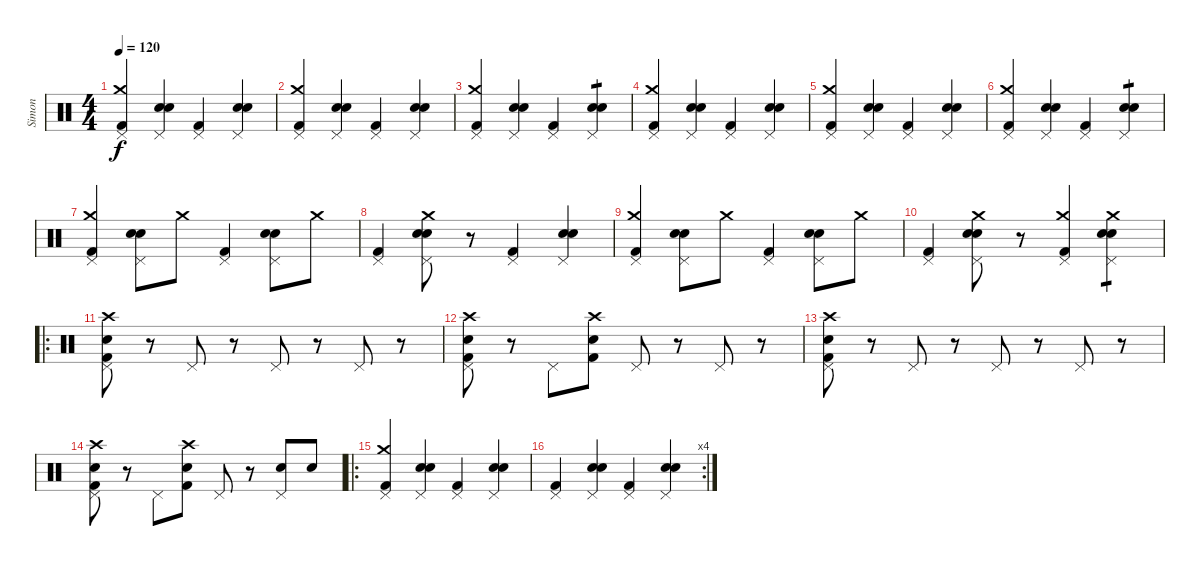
\track ("Simon" "Simon") {instrument percussion}
\staff {score}
\articulation defaults
\ts (4 4)
\tempo 120
\clef neutral
\ks c
("Kick (hit) 2" "Crash medium (hit)" "Pedal Hi-Hat (hit)").4{dy f} ("Snare (hit) 2" "Electric Snare (hit)" "Pedal Hi-Hat (hit)").4 ("Kick (hit) 2" "Pedal Hi-Hat (hit)").4 ("Snare (hit) 2" "Electric Snare (hit)" "Pedal Hi-Hat (hit)").4 |
("Kick (hit) 2" "Crash medium (hit)" "Pedal Hi-Hat (hit)").4 ("Snare (hit) 2" "Electric Snare (hit)" "Pedal Hi-Hat (hit)").4 ("Kick (hit) 2" "Pedal Hi-Hat (hit)").4 ("Snare (hit) 2" "Electric Snare (hit)" "Pedal Hi-Hat (hit)").4 |
("Kick (hit) 2" "Crash medium (hit)" "Pedal Hi-Hat (hit)").4 ("Snare (hit) 2" "Electric Snare (hit)" "Pedal Hi-Hat (hit)").4 ("Kick (hit) 2" "Pedal Hi-Hat (hit)").4 ("Snare (hit) 2" "Electric Snare (hit)" "Pedal Hi-Hat (hit)").4{tp 1} |
("Kick (hit) 2" "Crash medium (hit)" "Pedal Hi-Hat (hit)").4 ("Snare (hit) 2" "Electric Snare (hit)" "Pedal Hi-Hat (hit)").4 ("Kick (hit) 2" "Pedal Hi-Hat (hit)").4 ("Snare (hit) 2" "Electric Snare (hit)" "Pedal Hi-Hat (hit)").4 |
("Kick (hit) 2" "Crash medium (hit)" "Pedal Hi-Hat (hit)").4 ("Snare (hit) 2" "Electric Snare (hit)" "Pedal Hi-Hat (hit)").4 ("Kick (hit) 2" "Pedal Hi-Hat (hit)").4 ("Snare (hit) 2" "Electric Snare (hit)" "Pedal Hi-Hat (hit)").4 |
("Kick (hit) 2" "Crash medium (hit)" "Pedal Hi-Hat (hit)").4 ("Snare (hit) 2" "Electric Snare (hit)" "Pedal Hi-Hat (hit)").4 ("Kick (hit) 2" "Pedal Hi-Hat (hit)").4 ("Snare (hit) 2" "Electric Snare (hit)" "Pedal Hi-Hat (hit)").4{tp 1} |
("Kick (hit) 2" "Crash medium (hit)" "Pedal Hi-Hat (hit)").4 ("Snare (hit) 2" "Electric Snare (hit)" "Pedal Hi-Hat (hit)").8 "Crash medium (hit)".8 ("Kick (hit) 2" "Pedal Hi-Hat (hit)").4 ("Snare (hit) 2" "Electric Snare (hit)" "Pedal Hi-Hat (hit)").8 "Crash medium (hit)".8 |
("Kick (hit) 2" "Pedal Hi-Hat (hit)").4 ("Snare (hit) 2" "Electric Snare (hit)" "Crash medium (hit)" "Pedal Hi-Hat (hit)").8 r.8 ("Kick (hit) 2" "Pedal Hi-Hat (hit)").4 ("Snare (hit) 2" "Electric Snare (hit)" "Pedal Hi-Hat (hit)").4 |
("Kick (hit) 2" "Crash medium (hit)" "Pedal Hi-Hat (hit)").4 ("Snare (hit) 2" "Electric Snare (hit)" "Pedal Hi-Hat (hit)").8 "Crash medium (hit)".8 ("Kick (hit) 2" "Pedal Hi-Hat (hit)").4 ("Snare (hit) 2" "Electric Snare (hit)" "Pedal Hi-Hat (hit)").8 "Crash medium (hit)".8 |
("Kick (hit) 2" "Pedal Hi-Hat (hit)").4 ("Snare (hit) 2" "Electric Snare (hit)" "Crash medium (hit)" "Pedal Hi-Hat (hit)").8 r.8 ("Kick (hit) 2" "Crash medium (hit)" "Pedal Hi-Hat (hit)").4 ("Snare (hit) 2" "Electric Snare (hit)" "Crash medium (hit)" "Pedal Hi-Hat (hit)").4{tp 1} |
\ro
("Kick (hit) 2" "Snare (hit) 2" "Crash high (hit)" "Pedal Hi-Hat (hit)").8 r.8 "Pedal Hi-Hat (hit)".8 r.8 "Pedal Hi-Hat (hit)".8 r.8 "Pedal Hi-Hat (hit)".8 r.8 |
("Snare (hit) 2" "Kick (hit) 2" "Crash high (hit)" "Pedal Hi-Hat (hit)").8 r.8 "Pedal Hi-Hat (hit)".8 ("Kick (hit) 2" "Snare (hit) 2" "Crash high (hit)").8 "Pedal Hi-Hat (hit)".8 r.8 "Pedal Hi-Hat (hit)".8 r.8 |
("Kick (hit) 2" "Snare (hit) 2" "Crash high (hit)" "Pedal Hi-Hat (hit)").8 r.8 "Pedal Hi-Hat (hit)".8 r.8 "Pedal Hi-Hat (hit)".8 r.8 "Pedal Hi-Hat (hit)".8 r.8 |
("Snare (hit) 2" "Kick (hit) 2" "Crash high (hit)" "Pedal Hi-Hat (hit)").8 r.8 "Pedal Hi-Hat (hit)".8 ("Kick (hit) 2" "Snare (hit) 2" "Crash high (hit)").8 "Pedal Hi-Hat (hit)".8 r.8 ("Electric Snare (hit)" "Pedal Hi-Hat (hit)").8 "Electric Snare (hit)".8 |
\ro
("Kick (hit) 2" "Crash medium (hit)" "Pedal Hi-Hat (hit)").4 ("Snare (hit) 2" "Electric Snare (hit)" "Pedal Hi-Hat (hit)").4 ("Kick (hit) 2" "Pedal Hi-Hat (hit)").4 ("Snare (hit) 2" "Electric Snare (hit)" "Pedal Hi-Hat (hit)").4 |
\rc 4
("Kick (hit) 2" "Pedal Hi-Hat (hit)").4 ("Snare (hit) 2" "Electric Snare (hit)" "Pedal Hi-Hat (hit)").4 ("Kick (hit) 2" "Pedal Hi-Hat (hit)").4 ("Snare (hit) 2" "Electric Snare (hit)" "Pedal Hi-Hat (hit)").4
